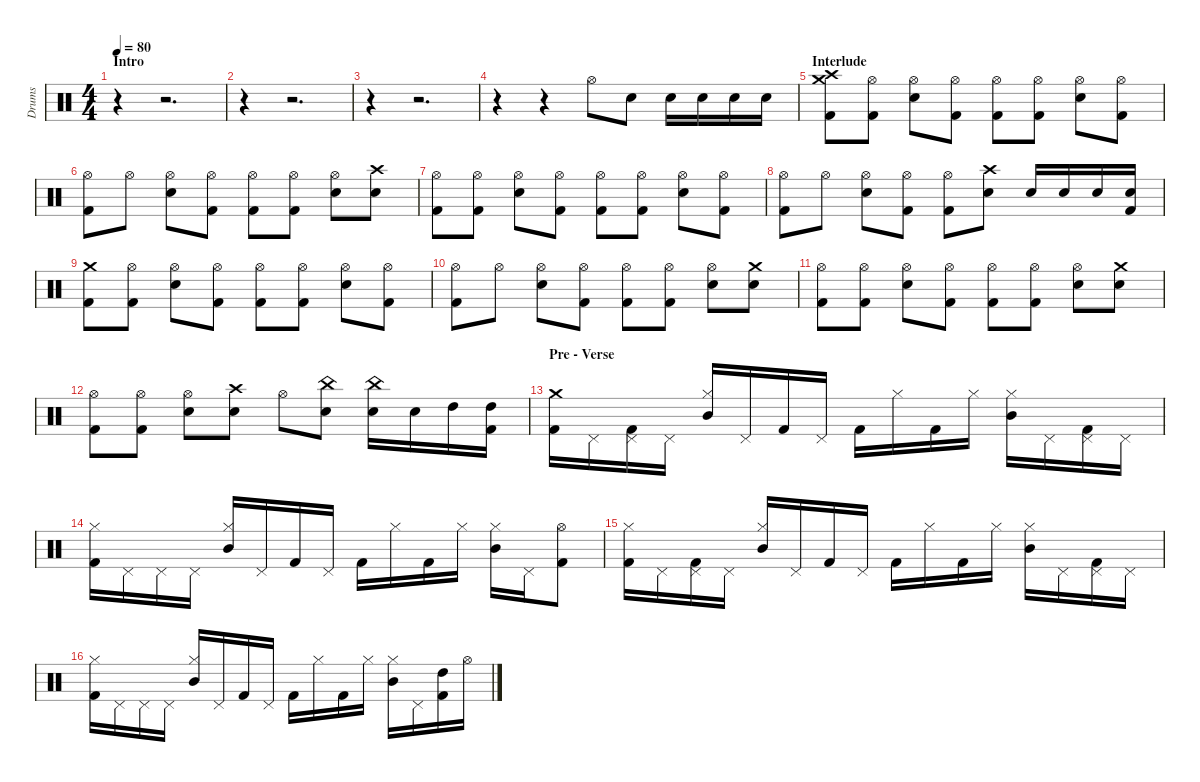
\hideDynamics
\bracketExtendMode nobrackets
\otherSystemsTrackNameOrientation horizontal
\track ("Drumkit" "Drums") {instrument percussion}
\staff {score}
\articulation defaults
\ts (4 4)
\section ("" "Intro")
\tempo 80
\clef neutral
\ks c
r.4{dy f beam Down} r.2{d beam Down} |
r.4{beam Down} r.2{d beam Down} |
r.4{beam Down} r.2{d beam Down} |
r.4{beam Down} r.4{beam Down} "Hi-Hat (open)".8{beam Down} "Snare (hit) 2".8{beam Down} "Snare (hit) 2".16{beam Down} "Snare (hit) 2".16{beam Down} "Snare (hit) 2".16{beam Down} "Snare (hit) 2".16{beam Down} |
\section ("" "Interlude")
("Kick (hit) 2" "Crash medium (hit)" "Crash high (hit)").8{beam Down} ("Kick (hit) 2" "Hi-Hat (open)").8{beam Down} ("Snare (hit) 2" "Hi-Hat (open)").8{beam Down} ("Kick (hit) 2" "Hi-Hat (open)").8{beam Down} ("Kick (hit) 2" "Hi-Hat (open)").8{beam Down} ("Kick (hit) 2" "Hi-Hat (open)").8{beam Down} ("Snare (hit) 2" "Hi-Hat (open)").8{beam Down} ("Kick (hit) 2" "Hi-Hat (open)").8{beam Down} |
("Kick (hit) 2" "Hi-Hat (open)").8{beam Down} "Hi-Hat (open)".8{beam Down} ("Snare (hit) 2" "Hi-Hat (open)").8{beam Down} ("Kick (hit) 2" "Hi-Hat (open)").8{beam Down} ("Kick (hit) 2" "Hi-Hat (open)").8{beam Down} ("Kick (hit) 2" "Hi-Hat (open)").8{beam Down} ("Snare (hit) 2" "Hi-Hat (open)").8{beam Down} ("Snare (hit) 2" "Crash high (hit)").8{beam Down} |
("Kick (hit) 2" "Hi-Hat (open)").8{beam Down} ("Kick (hit) 2" "Hi-Hat (open)").8{beam Down} ("Snare (hit) 2" "Hi-Hat (open)").8{beam Down} ("Kick (hit) 2" "Hi-Hat (open)").8{beam Down} ("Kick (hit) 2" "Hi-Hat (open)").8{beam Down} ("Kick (hit) 2" "Hi-Hat (open)").8{beam Down} ("Snare (hit) 2" "Hi-Hat (open)").8{beam Down} ("Kick (hit) 2" "Hi-Hat (open)").8{beam Down} |
("Kick (hit) 2" "Hi-Hat (open)").8{beam Down} "Hi-Hat (open)".8{beam Down} ("Snare (hit) 2" "Hi-Hat (open)").8{beam Down} ("Kick (hit) 2" "Hi-Hat (open)").8{beam Down} ("Kick (hit) 2" "Hi-Hat (open)").8{beam Down} ("Snare (hit) 2" "Crash high (hit)").8{beam Down} "Snare (hit) 2".16{beam Up} "Snare (hit) 2".16{beam Up} "Snare (hit) 2".16{beam Up} ("Kick (hit) 2" "Snare (hit) 2").16{beam Up} |
("Kick (hit) 2" "Crash medium (hit)").8{beam Down} ("Kick (hit) 2" "Hi-Hat (open)").8{beam Down} ("Snare (hit) 2" "Hi-Hat (open)").8{beam Down} ("Kick (hit) 2" "Hi-Hat (open)").8{beam Down} ("Kick (hit) 2" "Hi-Hat (open)").8{beam Down} ("Kick (hit) 2" "Hi-Hat (open)").8{beam Down} ("Snare (hit) 2" "Hi-Hat (open)").8{beam Down} ("Kick (hit) 2" "Hi-Hat (open)").8{beam Down} |
("Kick (hit) 2" "Hi-Hat (open)").8{beam Down} "Hi-Hat (open)".8{beam Down} ("Snare (hit) 2" "Hi-Hat (open)").8{beam Down} ("Kick (hit) 2" "Hi-Hat (open)").8{beam Down} ("Kick (hit) 2" "Hi-Hat (open)").8{beam Down} ("Kick (hit) 2" "Hi-Hat (open)").8{beam Down} ("Snare (hit) 2" "Hi-Hat (open)").8{beam Down} ("Snare (hit) 2" "Crash medium (hit)").8{beam Down} |
("Kick (hit) 2" "Hi-Hat (open)").8{beam Down} ("Kick (hit) 2" "Hi-Hat (open)").8{beam Down} ("Snare (hit) 2" "Hi-Hat (open)").8{beam Down} ("Kick (hit) 2" "Hi-Hat (open)").8{beam Down} ("Kick (hit) 2" "Hi-Hat (open)").8{beam Down} ("Kick (hit) 2" "Hi-Hat (open)").8{beam Down} ("Snare (hit) 2" "Hi-Hat (open)").8{beam Down} ("Snare (hit) 2" "Crash medium (hit)").8{beam Down} |
("Kick (hit) 2" "Hi-Hat (open)").8{beam Down} ("Kick (hit) 2" "Hi-Hat (open)").8{beam Down} ("Snare (hit) 2" "Hi-Hat (open)").8{beam Down} ("Snare (hit) 2" "Crash high (hit)").8{beam Down} "Hi-Hat (open)".8{beam Down} ("Snare (hit) 2" "China (hit)").8{beam Down} ("China (hit)" "Snare (hit) 2").16{beam Down} "Snare (hit) 2".16{beam Down} "High Tom (hit)".16{beam Down} ("Kick (hit) 2" "High Tom (hit)").16{beam Down} |
\section ("" "Pre - Verse")
("Crash medium (hit)" "Kick (hit) 2").16{beam Down} "Pedal Hi-Hat (hit)".16{beam Down} ("Pedal Hi-Hat (hit)" "Kick (hit) 2").16{beam Down} "Pedal Hi-Hat (hit)".16{beam Down} ("Hi-Hat (closed)" "Mid Tom (hit)").16{beam Up} "Pedal Hi-Hat (hit)".16{beam Up} "Kick (hit) 2".16{beam Up} "Pedal Hi-Hat (hit)".16{beam Up} "Kick (hit) 2".16{beam Down} "Hi-Hat (closed)".16{beam Down} "Kick (hit) 2".16{beam Down} "Hi-Hat (closed)".16{beam Down} ("Hi-Hat (closed)" "Mid Tom (hit)").16{beam Down} "Pedal Hi-Hat (hit)".16{beam Down} ("Pedal Hi-Hat (hit)" "Kick (hit) 2").16{beam Down} "Pedal Hi-Hat (hit)".16{beam Down} |
("Hi-Hat (closed)" "Kick (hit) 2").16{beam Down} "Pedal Hi-Hat (hit)".16{beam Down} "Pedal Hi-Hat (hit)".16{beam Down} "Pedal Hi-Hat (hit)".16{beam Down} ("Hi-Hat (closed)" "Mid Tom (hit)").16{beam Up} "Pedal Hi-Hat (hit)".16{beam Up} "Kick (hit) 2".16{beam Up} "Pedal Hi-Hat (hit)".16{beam Up} "Kick (hit) 2".16{beam Down} "Hi-Hat (closed)".16{beam Down} "Kick (hit) 2".16{beam Down} "Hi-Hat (closed)".16{beam Down} ("Hi-Hat (closed)" "Mid Tom (hit)").16{beam Down} "Pedal Hi-Hat (hit)".16{beam Down} ("Hi-Hat (open)" "Kick (hit) 2").8{beam Down} |
("Hi-Hat (closed)" "Kick (hit) 2").16{beam Down} "Pedal Hi-Hat (hit)".16{beam Down} ("Pedal Hi-Hat (hit)" "Kick (hit) 2").16{beam Down} "Pedal Hi-Hat (hit)".16{beam Down} ("Hi-Hat (closed)" "Mid Tom (hit)").16{beam Up} "Pedal Hi-Hat (hit)".16{beam Up} "Kick (hit) 2".16{beam Up} "Pedal Hi-Hat (hit)".16{beam Up} "Kick (hit) 2".16{beam Down} "Hi-Hat (closed)".16{beam Down} "Kick (hit) 2".16{beam Down} "Hi-Hat (closed)".16{beam Down} ("Hi-Hat (closed)" "Mid Tom (hit)").16{beam Down} "Pedal Hi-Hat (hit)".16{beam Down} ("Pedal Hi-Hat (hit)" "Kick (hit) 2").16{beam Down} "Pedal Hi-Hat (hit)".16{beam Down} |
("Hi-Hat (closed)" "Kick (hit) 2").16{beam Down} "Pedal Hi-Hat (hit)".16{beam Down} "Pedal Hi-Hat (hit)".16{beam Down} "Pedal Hi-Hat (hit)".16{beam Down} ("Hi-Hat (closed)" "Mid Tom (hit)").16{beam Up} "Pedal Hi-Hat (hit)".16{beam Up} "Kick (hit) 2".16{beam Up} "Pedal Hi-Hat (hit)".16{beam Up} "Kick (hit) 2".16{beam Down} "Hi-Hat (closed)".16{beam Down} "Kick (hit) 2".16{beam Down} "Hi-Hat (closed)".16{beam Down} ("Hi-Hat (closed)" "Mid Tom (hit)").16{beam Down} "Pedal Hi-Hat (hit)".16{beam Down} ("Kick (hit) 2" "High Tom (hit)").16{beam Down} "Hi-Hat (open)".16{beam Down}
